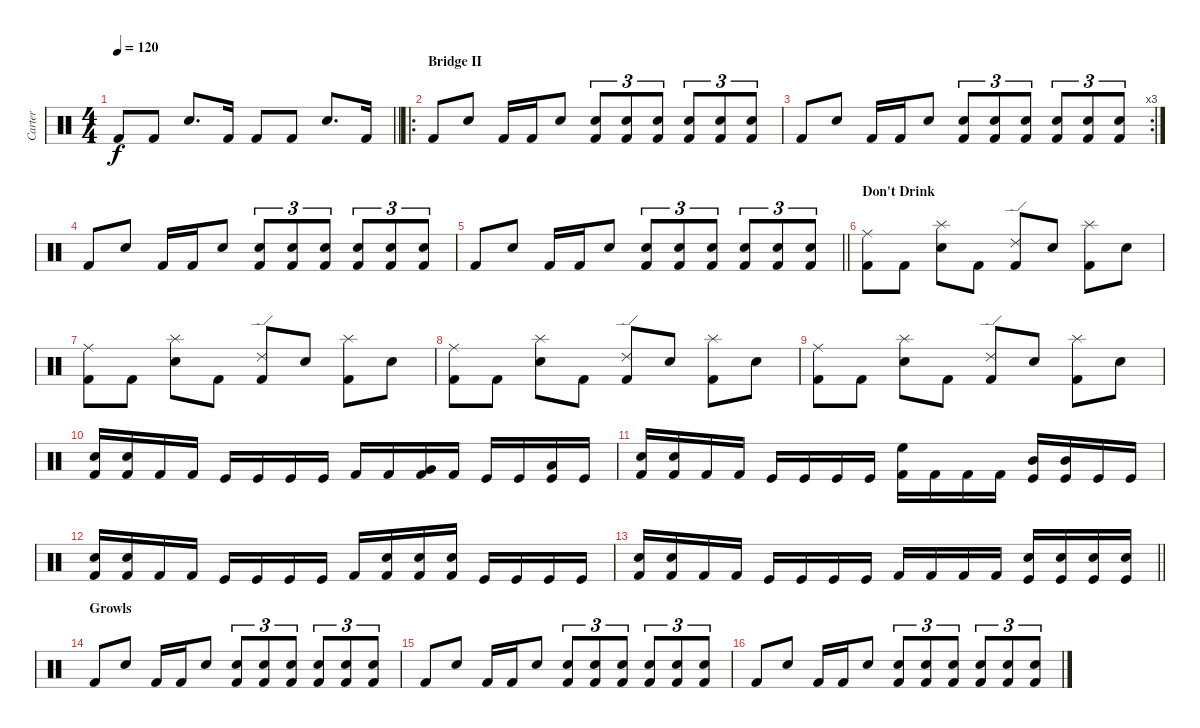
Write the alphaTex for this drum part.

\track ("Carter" "Carter") {instrument percussion}
\staff {score}
\articulation defaults
\ts (4 4)
\tempo 120
\clef neutral
\barLineRight lightlight
\ks c "Kick (hit) 2".8{dy f} "Kick (hit) 2".8 "Electric Snare (hit)".8{d} "Kick (hit) 2".16 "Kick (hit) 2".8 "Kick (hit) 2".8 "Electric Snare (hit)".8{d} "Kick (hit) 2".16
|
\ro
\section ("" "Bridge II")
"Kick (hit) 2".8 "Electric Snare (hit)".8 "Kick (hit) 2".16 "Kick (hit) 2".16 "Snare (hit) 2".8 ("Electric Snare (hit)" "Kick (hit) 2").8{tu (3 2)} ("Electric Snare (hit)" "Kick (hit) 2").8{tu (3 2)} ("Electric Snare (hit)" "Kick (hit) 2").8{tu (3 2)} ("Electric Snare (hit)" "Kick (hit) 2").8{tu (3 2)} ("Electric Snare (hit)" "Kick (hit) 2").8{tu (3 2)} ("Electric Snare (hit)" "Kick (hit) 2").8{tu (3 2)} |
\rc 3 "Kick (hit) 2".8 "Electric Snare (hit)".8 "Kick (hit) 2".16 "Kick (hit) 2".16 "Snare (hit) 2".8
("Electric Snare (hit)" "Kick (hit) 2").8{tu (3 2)} ("Electric Snare (hit)" "Kick (hit) 2").8{tu (3 2)} ("Electric Snare (hit)" "Kick (hit) 2").8{tu (3 2)} ("Electric Snare (hit)" "Kick (hit) 2").8{tu (3 2)} ("Electric Snare (hit)" "Kick (hit) 2").8{tu (3 2)} ("Electric Snare (hit)" "Kick (hit) 2").8{tu (3 2)} |
"Kick (hit) 2".8 "Electric Snare (hit)".8 "Kick (hit) 2".16 "Kick (hit) 2".16 "Snare (hit) 2".8 ("Electric Snare (hit)" "Kick (hit) 2").8{tu (3 2)} ("Electric Snare (hit)" "Kick (hit) 2").8{tu (3 2)} ("Electric Snare (hit)" "Kick (hit) 2").8{tu (3 2)} ("Electric Snare (hit)" "Kick (hit) 2").8{tu (3 2)} ("Electric Snare (hit)" "Kick (hit) 2").8{tu (3 2)} ("Electric Snare (hit)" "Kick (hit) 2").8{tu (3 2)} |
\barLineRight lightlight "Kick (hit) 2".8 "Electric Snare (hit)".8 "Kick (hit) 2".16 "Kick (hit) 2".16 "Snare (hit) 2".8
("Electric Snare (hit)" "Kick (hit) 2").8{tu (3 2)} ("Electric Snare (hit)" "Kick (hit) 2").8{tu (3 2)} ("Electric Snare (hit)" "Kick (hit) 2").8{tu (3 2)} ("Electric Snare (hit)" "Kick (hit) 2").8{tu (3 2)} ("Electric Snare (hit)" "Kick (hit) 2").8{tu (3 2)} ("Electric Snare (hit)" "Kick (hit) 2").8{tu (3 2)} |
\section ("" "Don't Drink")
("Kick (hit) 2" "Ride (middle)").8 "Kick (hit) 2".8 ("Electric Snare (hit)" "Splash (hit)").8 "Kick (hit) 2".8 ("Kick (hit) 2" "Ride (edge) 2").8 "Electric Snare (hit)".8 ("Kick (hit) 2" "Splash (hit)").8 "Electric Snare (hit)".8 |
("Kick (hit) 2" "Ride (middle)").8 "Kick (hit) 2".8 ("Electric Snare (hit)" "Splash (hit)").8 "Kick (hit) 2".8 ("Kick (hit) 2" "Ride (edge) 2").8 "Electric Snare (hit)".8 ("Kick (hit) 2" "Splash (hit)").8 "Electric Snare (hit)".8 |
("Kick (hit) 2" "Ride (middle)").8 "Kick (hit) 2".8 ("Electric Snare (hit)" "Splash (hit)").8 "Kick (hit) 2".8 ("Kick (hit) 2" "Ride (edge) 2").8 "Electric Snare (hit)".8 ("Kick (hit) 2" "Splash (hit)").8 "Electric Snare (hit)".8 |
("Kick (hit) 2" "Ride (middle)").8 "Kick (hit) 2".8 ("Electric Snare (hit)" "Splash (hit)").8 "Kick (hit) 2".8 ("Kick (hit) 2" "Ride (edge) 2").8 "Electric Snare (hit)".8 ("Kick (hit) 2" "Splash (hit)").8 "Electric Snare (hit)".8 |
("Electric Snare (hit)" "Kick (hit) 2").16 ("Electric Snare (hit)" "Kick (hit) 2").16 "Kick (hit) 2".16 "Kick (hit) 2".16 "Kick (hit)".16 "Kick (hit)".16 "Kick (hit)".16 "Kick (hit)".16 "Kick (hit) 2".16 "Kick (hit) 2".16 ("Very Low Tom (hit)" "Kick (hit) 2").16 "Kick (hit) 2".16 "Kick (hit)".16 "Kick (hit)".16 ("Low Floor Tom (hit)" "Kick (hit)").16 "Kick (hit)".16 |
("Electric Snare (hit)" "Kick (hit) 2").16 ("Electric Snare (hit)" "Kick (hit) 2").16 "Kick (hit) 2".16 "Kick (hit) 2".16 "Kick (hit)".16 "Kick (hit)".16 "Kick (hit)".16 "Kick (hit)".16 ("High Floor Tom (hit)" "Kick (hit) 2").16 "Kick (hit) 2".16 "Kick (hit) 2".16 "Kick (hit) 2".16 ("Mid Tom (hit)" "Kick (hit)").16 ("Mid Tom (hit)" "Kick (hit)").16 "Kick (hit)".16 "Kick (hit)".16 |
("Electric Snare (hit)" "Kick (hit) 2").16 ("Electric Snare (hit)" "Kick (hit) 2").16 "Kick (hit) 2".16 "Kick (hit) 2".16 "Kick (hit)".16 "Kick (hit)".16 "Kick (hit)".16 "Kick (hit)".16 "Kick (hit) 2".16 ("Electric Snare (hit)" "Kick (hit) 2").16 ("Electric Snare (hit)" "Kick (hit) 2").16 ("Electric Snare (hit)" "Kick (hit) 2").16 "Kick (hit)".16 "Kick (hit)".16 "Kick (hit)".16 "Kick (hit)".16 |
\barLineRight lightlight
("Electric Snare (hit)" "Kick (hit) 2").16 ("Electric Snare (hit)" "Kick (hit) 2").16 "Kick (hit) 2".16 "Kick (hit) 2".16 "Kick (hit)".16 "Kick (hit)".16 "Kick (hit)".16 "Kick (hit)".16 "Kick (hit) 2".16 "Kick (hit) 2".16 "Kick (hit) 2".16 "Kick (hit) 2".16 ("Snare (hit) 2" "Kick (hit)").16 ("Snare (hit) 2" "Kick (hit)").16 ("Snare (hit) 2" "Kick (hit)").16 ("Snare (hit) 2" "Kick (hit)").16 |
\section ("" "Growls")
"Kick (hit) 2".8 "Electric Snare (hit)".8 "Kick (hit) 2".16 "Kick (hit) 2".16 "Snare (hit) 2".8 ("Electric Snare (hit)" "Kick (hit) 2").8{tu (3 2)} ("Electric Snare (hit)" "Kick (hit) 2").8{tu (3 2)} ("Electric Snare (hit)" "Kick (hit) 2").8{tu (3 2)} ("Electric Snare (hit)" "Kick (hit) 2").8{tu (3 2)} ("Electric Snare (hit)" "Kick (hit) 2").8{tu (3 2)} ("Electric Snare (hit)" "Kick (hit) 2").8{tu (3 2)} |
"Kick (hit) 2".8 "Electric Snare (hit)".8 "Kick (hit) 2".16 "Kick (hit) 2".16 "Snare (hit) 2".8 ("Electric Snare (hit)" "Kick (hit) 2").8{tu (3 2)} ("Electric Snare (hit)" "Kick (hit) 2").8{tu (3 2)} ("Electric Snare (hit)" "Kick (hit) 2").8{tu (3 2)} ("Electric Snare (hit)" "Kick (hit) 2").8{tu (3 2)} ("Electric Snare (hit)" "Kick (hit) 2").8{tu (3 2)} ("Electric Snare (hit)" "Kick (hit) 2").8{tu (3 2)} |
"Kick (hit) 2".8 "Electric Snare (hit)".8 "Kick (hit) 2".16 "Kick (hit) 2".16 "Snare (hit) 2".8 ("Electric Snare (hit)" "Kick (hit) 2").8{tu (3 2)} ("Electric Snare (hit)" "Kick (hit) 2").8{tu (3 2)} ("Electric Snare (hit)" "Kick (hit) 2").8{tu (3 2)} ("Electric Snare (hit)" "Kick (hit) 2").8{tu (3 2)} ("Electric Snare (hit)" "Kick (hit) 2").8{tu (3 2)} ("Electric Snare (hit)" "Kick (hit) 2").8{tu (3 2)}
